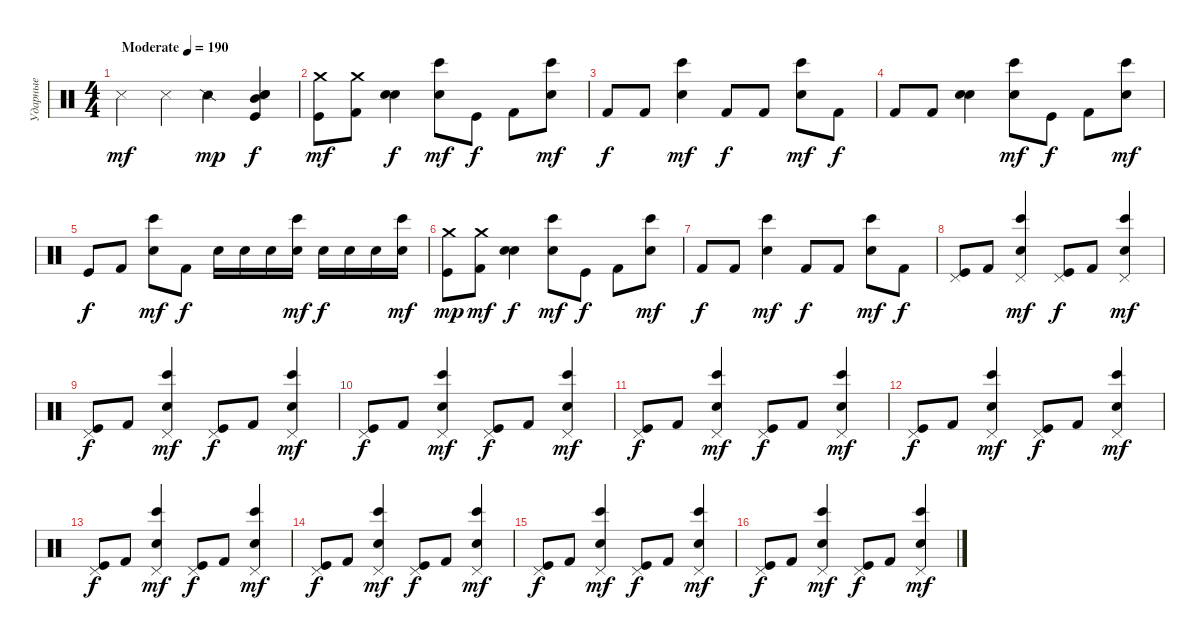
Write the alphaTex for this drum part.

\track ("Ударные" "Ударные") {instrument percussion}
\staff {score}
\articulation defaults
\ts (4 4)
\tempo (190 "Moderate")
\clef neutral
\ks c "Snare (side stick) 3".4{dy mf} "Metronome (hit)".4 "Snare (side stick) 2".4{dy mp}
("Electric Snare (hit)" "Snare (hit) 2" "Mid Tom (hit)" "Kick (hit)").4{dy f} |
("Crash medium (hit)" "Kick (hit)").8{dy mf} ("Crash medium (hit)" "Kick (hit) 2").8 ("Electric Snare (hit)" "Snare (hit) 2").4{dy f} ("Electric Snare (hit)" "Bongo High (hit)").8{dy mf} "Kick (hit)".8{dy f} "Kick (hit) 2".8 ("Electric Snare (hit)" "Bongo High (hit)").8{dy mf} |
"Kick (hit) 2".8{dy f} "Kick (hit) 2".8 ("Electric Snare (hit)" "Bongo High (hit)").4{dy mf} "Kick (hit) 2".8{dy f} "Kick (hit) 2".8 ("Electric Snare (hit)" "Bongo High (hit)").8{dy mf} "Kick (hit) 2".8{dy f} |
"Kick (hit) 2".8 "Kick (hit) 2".8 ("Electric Snare (hit)" "Snare (hit) 2").4 ("Electric Snare (hit)" "Bongo High (hit)").8{dy mf} "Kick (hit)".8{dy f} "Kick (hit) 2".8 ("Electric Snare (hit)" "Bongo High (hit)").8{dy mf} |
"Kick (hit)".8{dy f} "Kick (hit) 2".8 ("Electric Snare (hit)" "Bongo High (hit)").8{dy mf} "Kick (hit) 2".8{dy f} "Electric Snare (hit)".16 "Electric Snare (hit)".16 "Electric Snare (hit)".16 ("Electric Snare (hit)" "Bongo High (hit)").16{dy mf} "Electric Snare (hit)".16{dy f} "Electric Snare (hit)".16 "Electric Snare (hit)".16 ("Electric Snare (hit)" "Bongo High (hit)").16{dy mf} |
("Crash medium (hit)" "Kick (hit)").8{dy mp} ("Crash medium (hit)" "Kick (hit) 2").8{dy mf} ("Electric Snare (hit)" "Snare (hit) 2").4{dy f} ("Electric Snare (hit)" "Bongo High (hit)").8{dy mf} "Kick (hit)".8{dy f} "Kick (hit) 2".8 ("Electric Snare (hit)" "Bongo High (hit)").8{dy mf} |
"Kick (hit) 2".8{dy f} "Kick (hit) 2".8 ("Electric Snare (hit)" "Bongo High (hit)").4{dy mf} "Kick (hit) 2".8{dy f} "Kick (hit) 2".8 ("Electric Snare (hit)" "Bongo High (hit)").8{dy mf} "Kick (hit) 2".8{dy f} |
("Pedal Hi-Hat (hit)" "Kick (hit)").8 "Kick (hit) 2".8 ("Pedal Hi-Hat (hit)" "Electric Snare (hit)" "Bongo High (hit)").4{dy mf} ("Pedal Hi-Hat (hit)" "Kick (hit)").8{dy f} "Kick (hit) 2".8 ("Pedal Hi-Hat (hit)" "Electric Snare (hit)" "Bongo High (hit)").4{dy mf} |
("Pedal Hi-Hat (hit)" "Kick (hit)").8{dy f} "Kick (hit) 2".8 ("Pedal Hi-Hat (hit)" "Electric Snare (hit)" "Bongo High (hit)").4{dy mf} ("Pedal Hi-Hat (hit)" "Kick (hit)").8{dy f} "Kick (hit) 2".8 ("Pedal Hi-Hat (hit)" "Electric Snare (hit)" "Bongo High (hit)").4{dy mf} |
("Pedal Hi-Hat (hit)" "Kick (hit)").8{dy f} "Kick (hit) 2".8 ("Pedal Hi-Hat (hit)" "Electric Snare (hit)" "Bongo High (hit)").4{dy mf} ("Pedal Hi-Hat (hit)" "Kick (hit)").8{dy f} "Kick (hit) 2".8 ("Pedal Hi-Hat (hit)" "Electric Snare (hit)" "Bongo High (hit)").4{dy mf} |
("Pedal Hi-Hat (hit)" "Kick (hit)").8{dy f} "Kick (hit) 2".8 ("Pedal Hi-Hat (hit)" "Electric Snare (hit)" "Bongo High (hit)").4{dy mf} ("Pedal Hi-Hat (hit)" "Kick (hit)").8{dy f} "Kick (hit) 2".8 ("Pedal Hi-Hat (hit)" "Electric Snare (hit)" "Bongo High (hit)").4{dy mf} |
("Pedal Hi-Hat (hit)" "Kick (hit)").8{dy f} "Kick (hit) 2".8 ("Pedal Hi-Hat (hit)" "Electric Snare (hit)" "Bongo High (hit)").4{dy mf} ("Pedal Hi-Hat (hit)" "Kick (hit)").8{dy f} "Kick (hit) 2".8 ("Pedal Hi-Hat (hit)" "Electric Snare (hit)" "Bongo High (hit)").4{dy mf} |
("Pedal Hi-Hat (hit)" "Kick (hit)").8{dy f} "Kick (hit) 2".8 ("Pedal Hi-Hat (hit)" "Electric Snare (hit)" "Bongo High (hit)").4{dy mf} ("Pedal Hi-Hat (hit)" "Kick (hit)").8{dy f} "Kick (hit) 2".8 ("Pedal Hi-Hat (hit)" "Electric Snare (hit)" "Bongo High (hit)").4{dy mf} |
("Pedal Hi-Hat (hit)" "Kick (hit)").8{dy f} "Kick (hit) 2".8 ("Pedal Hi-Hat (hit)" "Electric Snare (hit)" "Bongo High (hit)").4{dy mf} ("Pedal Hi-Hat (hit)" "Kick (hit)").8{dy f} "Kick (hit) 2".8 ("Pedal Hi-Hat (hit)" "Electric Snare (hit)" "Bongo High (hit)").4{dy mf} |
("Pedal Hi-Hat (hit)" "Kick (hit)").8{dy f} "Kick (hit) 2".8 ("Pedal Hi-Hat (hit)" "Electric Snare (hit)" "Bongo High (hit)").4{dy mf} ("Pedal Hi-Hat (hit)" "Kick (hit)").8{dy f} "Kick (hit) 2".8 ("Pedal Hi-Hat (hit)" "Electric Snare (hit)" "Bongo High (hit)").4{dy mf} |
("Pedal Hi-Hat (hit)" "Kick (hit)").8{dy f} "Kick (hit) 2".8 ("Pedal Hi-Hat (hit)" "Electric Snare (hit)" "Bongo High (hit)").4{dy mf} ("Pedal Hi-Hat (hit)" "Kick (hit)").8{dy f} "Kick (hit) 2".8 ("Pedal Hi-Hat (hit)" "Electric Snare (hit)" "Bongo High (hit)").4{dy mf}
